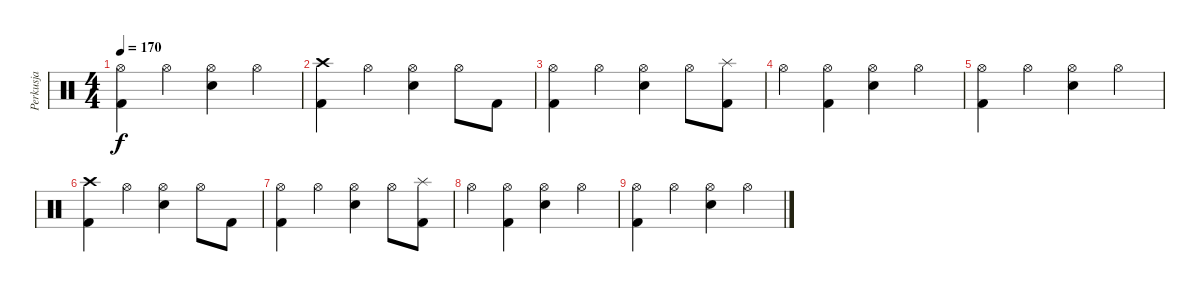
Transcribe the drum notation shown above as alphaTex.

\track ("Perkusja" "Perkusja") {instrument percussion}
\staff {score}
\articulation defaults
\ts (4 4)
\tempo 170
\clef neutral
\ks c
("Hi-Hat (open)" "Kick (hit) 2").4{dy f} "Hi-Hat (open)".4 ("Hi-Hat (open)" "Electric Snare (hit)").4 "Hi-Hat (open)".4 |
("Crash high (hit)" "Kick (hit) 2").4 "Hi-Hat (open)".4 ("Hi-Hat (open)" "Electric Snare (hit)").4 "Hi-Hat (open)".8 "Kick (hit) 2".8 |
("Hi-Hat (open)" "Kick (hit) 2").4 "Hi-Hat (open)".4 ("Hi-Hat (open)" "Electric Snare (hit)").4 "Hi-Hat (open)".8 ("Splash (hit)" "Kick (hit) 2").8 |
"Hi-Hat (open)".4 ("Hi-Hat (open)" "Kick (hit) 2").4 ("Hi-Hat (open)" "Electric Snare (hit)").4 "Hi-Hat (open)".4 |
("Hi-Hat (open)" "Kick (hit) 2").4 "Hi-Hat (open)".4 ("Hi-Hat (open)" "Electric Snare (hit)").4 "Hi-Hat (open)".4 |
("Crash high (hit)" "Kick (hit) 2").4 "Hi-Hat (open)".4 ("Hi-Hat (open)" "Electric Snare (hit)").4 "Hi-Hat (open)".8 "Kick (hit) 2".8 |
("Hi-Hat (open)" "Kick (hit) 2").4 "Hi-Hat (open)".4 ("Hi-Hat (open)" "Electric Snare (hit)").4 "Hi-Hat (open)".8 ("Splash (hit)" "Kick (hit) 2").8 |
"Hi-Hat (open)".4 ("Hi-Hat (open)" "Kick (hit) 2").4 ("Hi-Hat (open)" "Electric Snare (hit)").4 "Hi-Hat (open)".4 |
("Hi-Hat (open)" "Kick (hit) 2").4 "Hi-Hat (open)".4 ("Hi-Hat (open)" "Electric Snare (hit)").4 "Hi-Hat (open)".4
